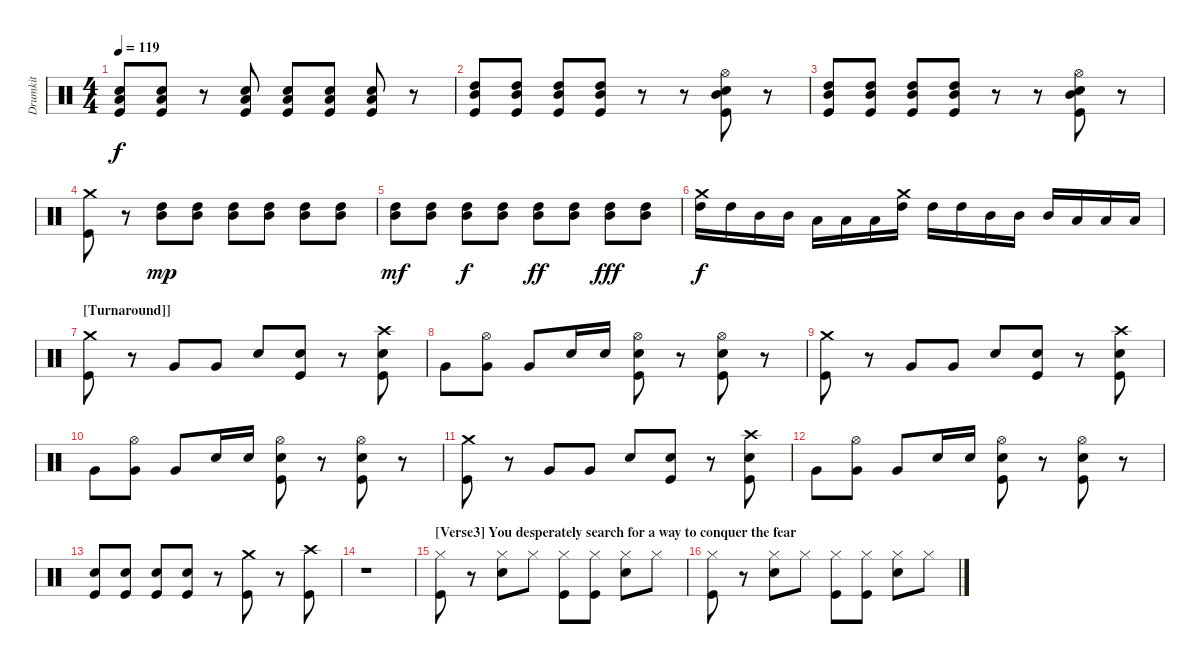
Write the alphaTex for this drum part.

\track ("Drumkit" "Drumkit") {instrument percussion}
\staff {score}
\articulation defaults
\ts (4 4)
\tempo 119
\clef neutral
\ks c
("Low Tom (hit)" "Snare (hit) 2" "Kick (hit)").8{dy f} ("Low Tom (hit)" "Snare (hit) 2" "Kick (hit)").8 r.8 ("Low Tom (hit)" "Snare (hit) 2" "Kick (hit)").8 ("Low Tom (hit)" "Snare (hit) 2" "Kick (hit)").8 ("Low Tom (hit)" "Snare (hit) 2" "Kick (hit)").8 ("Low Tom (hit)" "Snare (hit) 2" "Kick (hit)").8 r.8 |
("High Tom (hit)" "Mid Tom (hit)" "Kick (hit)").8 ("High Tom (hit)" "Mid Tom (hit)" "Kick (hit)").8 ("High Tom (hit)" "Mid Tom (hit)" "Kick (hit)").8 ("High Tom (hit)" "Mid Tom (hit)" "Kick (hit)").8 r.8 r.8 ("Hi-Hat (open)" "Snare (hit) 2" "Mid Tom (hit)" "Kick (hit)").8 r.8 |
("High Tom (hit)" "Mid Tom (hit)" "Kick (hit)").8 ("High Tom (hit)" "Mid Tom (hit)" "Kick (hit)").8 ("High Tom (hit)" "Mid Tom (hit)" "Kick (hit)").8 ("High Tom (hit)" "Mid Tom (hit)" "Kick (hit)").8 r.8 r.8 ("Hi-Hat (open)" "Snare (hit) 2" "Mid Tom (hit)" "Kick (hit)").8 r.8 |
("Crash medium (hit)" "Kick (hit)").8 r.8 ("High Tom (hit)" "Mid Tom (hit)").8{dy mp} ("High Tom (hit)" "Mid Tom (hit)").8 ("High Tom (hit)" "Mid Tom (hit)").8 ("High Tom (hit)" "Mid Tom (hit)").8 ("High Tom (hit)" "Mid Tom (hit)").8 ("High Tom (hit)" "Mid Tom (hit)").8 |
("High Tom (hit)" "Mid Tom (hit)").8{dy mf} ("High Tom (hit)" "Mid Tom (hit)").8 ("High Tom (hit)" "Mid Tom (hit)").8{dy f} ("High Tom (hit)" "Mid Tom (hit)").8 ("High Tom (hit)" "Mid Tom (hit)").8{dy ff} ("High Tom (hit)" "Mid Tom (hit)").8 ("High Tom (hit)" "Mid Tom (hit)").8{dy fff} ("High Tom (hit)" "Mid Tom (hit)").8 |
("Crash medium (hit)" "High Tom (hit)").16{dy f} "High Tom (hit)".16 "Mid Tom (hit)".16 "Mid Tom (hit)".16 "Low Tom (hit)".16 "Low Tom (hit)".16 "Low Tom (hit)".16 ("Crash medium (hit)" "High Tom (hit)").16 "High Tom (hit)".16 "High Tom (hit)".16 "Mid Tom (hit)".16 "Mid Tom (hit)".16 "Mid Tom (hit)".16 "Low Tom (hit)".16 "Low Tom (hit)".16 "Low Tom (hit)".16 |
\section ("" "[Turnaround]]")
("Crash medium (hit)" "Kick (hit)").8 r.8 "Very Low Tom (hit)".8 "Very Low Tom (hit)".8 "Snare (hit) 2".8 ("Snare (hit) 2" "Kick (hit)").8 r.8 ("Crash high (hit)" "Snare (hit) 2" "Kick (hit)").8 |
"Very Low Tom (hit)".8 ("Hi-Hat (open)" "Very Low Tom (hit)").8 "Very Low Tom (hit)".8 "Snare (hit) 2".16 "Snare (hit) 2".16 ("Hi-Hat (open)" "Snare (hit) 2" "Kick (hit)").8 r.8 ("Hi-Hat (open)" "Snare (hit) 2" "Kick (hit)").8 r.8 |
("Crash medium (hit)" "Kick (hit)").8 r.8 "Very Low Tom (hit)".8 "Very Low Tom (hit)".8 "Snare (hit) 2".8 ("Snare (hit) 2" "Kick (hit)").8 r.8 ("Crash high (hit)" "Snare (hit) 2" "Kick (hit)").8 |
"Very Low Tom (hit)".8 ("Hi-Hat (open)" "Very Low Tom (hit)").8 "Very Low Tom (hit)".8 "Snare (hit) 2".16 "Snare (hit) 2".16 ("Hi-Hat (open)" "Snare (hit) 2" "Kick (hit)").8 r.8 ("Hi-Hat (open)" "Snare (hit) 2" "Kick (hit)").8 r.8 |
("Crash medium (hit)" "Kick (hit)").8 r.8 "Very Low Tom (hit)".8 "Very Low Tom (hit)".8 "Snare (hit) 2".8 ("Snare (hit) 2" "Kick (hit)").8 r.8 ("Crash high (hit)" "Snare (hit) 2" "Kick (hit)").8 |
"Very Low Tom (hit)".8 ("Hi-Hat (open)" "Very Low Tom (hit)").8 "Very Low Tom (hit)".8 "Snare (hit) 2".16 "Snare (hit) 2".16 ("Hi-Hat (open)" "Snare (hit) 2" "Kick (hit)").8 r.8 ("Hi-Hat (open)" "Snare (hit) 2" "Kick (hit)").8 r.8 |
("Snare (hit) 2" "Kick (hit)").8 ("Snare (hit) 2" "Kick (hit)").8 ("Snare (hit) 2" "Kick (hit)").8 ("Snare (hit) 2" "Kick (hit)").8 r.8 ("Crash medium (hit)" "Kick (hit)").8 r.8 ("Crash high (hit)" "Kick (hit)").8 |
r.1 |
\section ("" "[Verse3] You desperately search for a way to conquer the fear")
("Hi-Hat (closed)" "Kick (hit)").8 r.8 ("Hi-Hat (closed)" "Snare (hit) 2").8 "Hi-Hat (closed)".8 ("Hi-Hat (closed)" "Kick (hit)").8 ("Hi-Hat (closed)" "Kick (hit)").8 ("Hi-Hat (closed)" "Snare (hit) 2").8 "Hi-Hat (closed)".8 |
("Hi-Hat (closed)" "Kick (hit)").8 r.8 ("Hi-Hat (closed)" "Snare (hit) 2").8 "Hi-Hat (closed)".8 ("Hi-Hat (closed)" "Kick (hit)").8 ("Hi-Hat (closed)" "Kick (hit)").8 ("Hi-Hat (closed)" "Snare (hit) 2").8 "Hi-Hat (closed)".8
